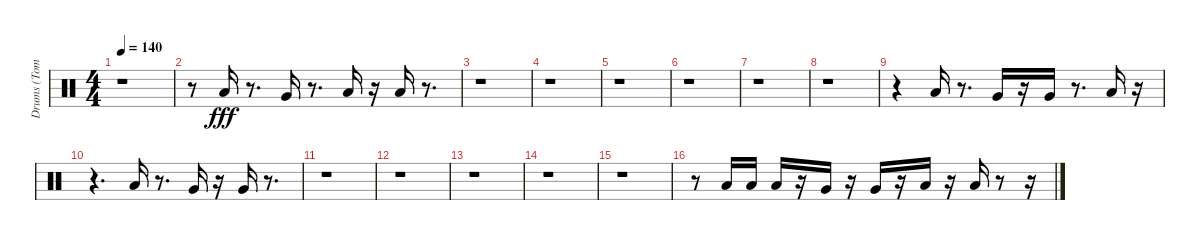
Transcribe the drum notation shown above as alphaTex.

\track ("Drums (Toms)" "Drums (Tom") {instrument percussion}
\staff {score}
\articulation defaults
\ts (4 4)
\tempo 140
\clef neutral
\ks c
r.1{dy fff} |
r.8 "Low Tom (hit)".16 r.8{d} "Very Low Tom (hit)".16 r.8{d} "Low Floor Tom (hit)".16 r.16 "Low Floor Tom (hit)".16 r.8{d} |
r.1 |
r.1 |
r.1 |
r.1 |
r.1 |
r.1 |
r.4 "Low Tom (hit)".16 r.8{d} "Very Low Tom (hit)".16 r.16 "Very Low Tom (hit)".16 r.8{d} "Low Tom (hit)".16 r.16 |
r.4{d} "Low Tom (hit)".16 r.8{d} "Very Low Tom (hit)".16 r.16 "Very Low Tom (hit)".16 r.8{d} |
r.1 |
r.1 |
r.1 |
r.1 |
r.1 |
r.8 "Low Tom (hit)".16 "Low Tom (hit)".16 "Low Tom (hit)".16 r.16 "Very Low Tom (hit)".16 r.16 "Very Low Tom (hit)".16 r.16 "Low Floor Tom (hit)".16 r.16 "Low Floor Tom (hit)".16 r.8 r.16
